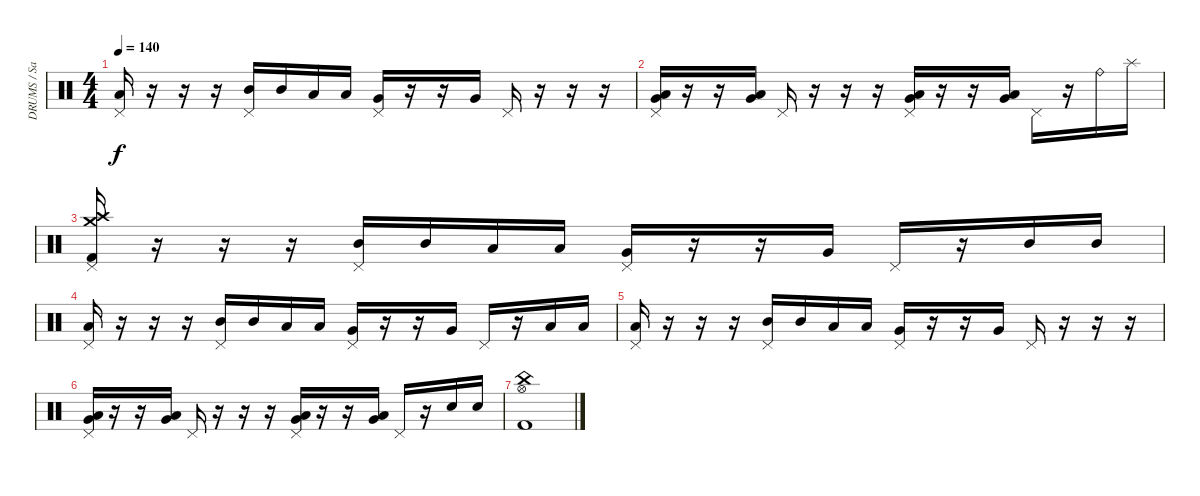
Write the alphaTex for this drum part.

\track ("DRUMS / Sasha" "DRUMS / Sa") {instrument percussion}
\staff {score}
\articulation defaults
\ts (4 4)
\tempo 140
\clef neutral
\ks c
("Pedal Hi-Hat (hit)" "Low Tom (hit)").16{dy f} r.16 r.16 r.16 ("Pedal Hi-Hat (hit)" "Mid Tom (hit)").16 "Mid Tom (hit)".16 "Low Tom (hit)".16 "Low Tom (hit)".16 ("Pedal Hi-Hat (hit)" "Very Low Tom (hit)").16 r.16 r.16 "Very Low Tom (hit)".16 "Pedal Hi-Hat (hit)".16 r.16 r.16 r.16 |
("Pedal Hi-Hat (hit)" "Low Tom (hit)" "Very Low Tom (hit)").16 r.16 r.16 ("Low Tom (hit)" "Very Low Tom (hit)").16 "Pedal Hi-Hat (hit)".16 r.16 r.16 r.16 ("Pedal Hi-Hat (hit)" "Low Tom (hit)" "Very Low Tom (hit)").16 r.16 r.16 ("Low Tom (hit)" "Very Low Tom (hit)").16 "Pedal Hi-Hat (hit)".16 r.16 "Ride (bell)".16 "Splash (hit)".16 |
("Pedal Hi-Hat (hit)" "Crash medium (hit)" "Crash high (hit)" "Kick (hit) 2").16 r.16 r.16 r.16 ("Pedal Hi-Hat (hit)" "Mid Tom (hit)").16 "Mid Tom (hit)".16 "Low Tom (hit)".16 "Low Tom (hit)".16 ("Pedal Hi-Hat (hit)" "Very Low Tom (hit)").16 r.16 r.16 "Very Low Tom (hit)".16 "Pedal Hi-Hat (hit)".16 r.16 "Mid Tom (hit)".16 "Mid Tom (hit)".16 |
("Pedal Hi-Hat (hit)" "Low Tom (hit)").16 r.16 r.16 r.16 ("Pedal Hi-Hat (hit)" "Mid Tom (hit)").16 "Mid Tom (hit)".16 "Low Tom (hit)".16 "Low Tom (hit)".16 ("Pedal Hi-Hat (hit)" "Very Low Tom (hit)").16 r.16 r.16 "Very Low Tom (hit)".16 "Pedal Hi-Hat (hit)".16 r.16 "Low Tom (hit)".16 "Low Tom (hit)".16 |
("Pedal Hi-Hat (hit)" "Low Tom (hit)").16 r.16 r.16 r.16 ("Pedal Hi-Hat (hit)" "Mid Tom (hit)").16 "Mid Tom (hit)".16 "Low Tom (hit)".16 "Low Tom (hit)".16 ("Pedal Hi-Hat (hit)" "Very Low Tom (hit)").16 r.16 r.16 "Very Low Tom (hit)".16 "Pedal Hi-Hat (hit)".16 r.16 r.16 r.16 |
("Pedal Hi-Hat (hit)" "Low Tom (hit)" "Very Low Tom (hit)").16 r.16 r.16 ("Low Tom (hit)" "Very Low Tom (hit)").16 "Pedal Hi-Hat (hit)".16 r.16 r.16 r.16 ("Pedal Hi-Hat (hit)" "Low Tom (hit)" "Very Low Tom (hit)").16 r.16 r.16 ("Low Tom (hit)" "Very Low Tom (hit)").16 "Pedal Hi-Hat (hit)".16 r.16 "Electric Snare (hit)".16 "Electric Snare (hit)".16 |
("China (hit)" "Hi-Hat (open)" "Kick (hit) 2").1
